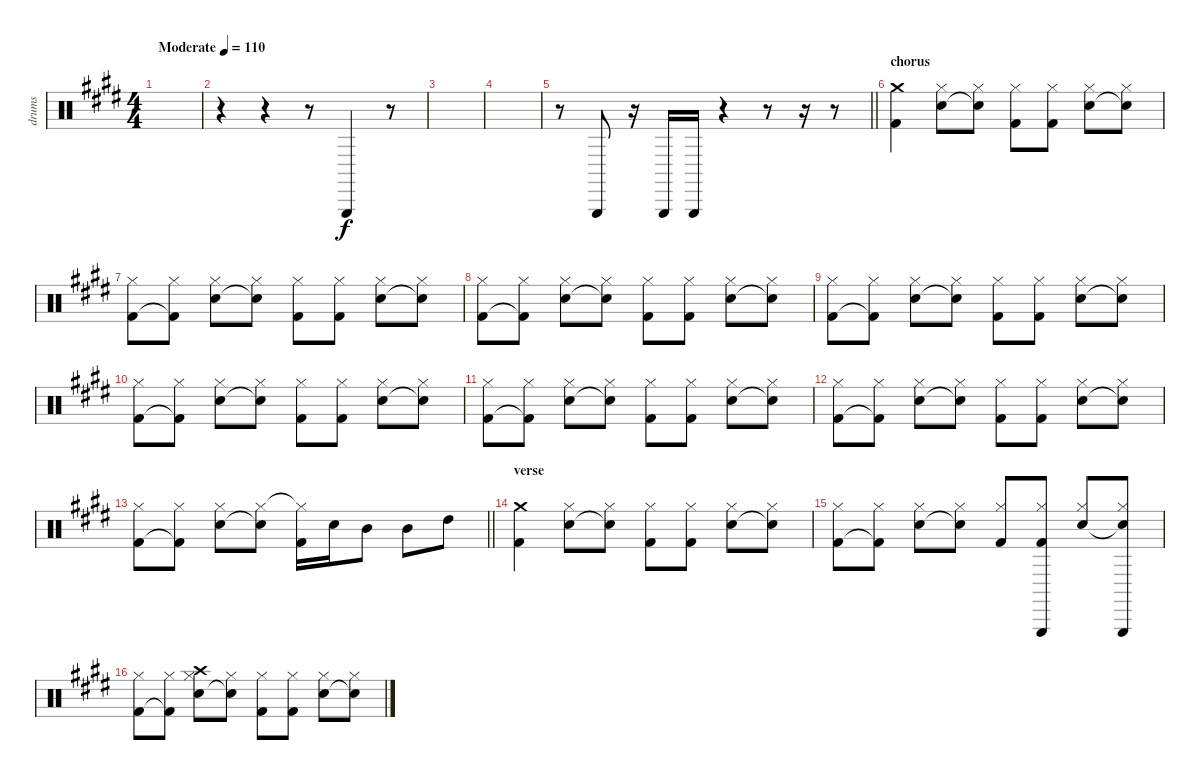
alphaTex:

\track ("drums" "drums") {instrument percussion}
\staff {score}
\articulation defaults
\ts (4 4)
\tempo (110 "Moderate")
\clef neutral
\ks e
|
r.4 r.4 r.8 "Triangle (hit)".4 r.8 |
|
|
\barLineRight lightlight
r.8 "Triangle (hit)".8 r.16 "Triangle (hit)".16 "Triangle (hit)".16 r.4 r.8 r.16 r.8 |
\section ("" "chorus")
("Kick (hit) 2" "Crash medium (hit)").4 ("Electric Snare (hit)" "Hi-Hat (closed)").8 ("Snare (hit)"{t} "Hi-Hat (closed)").8 ("Kick (hit) 2" "Hi-Hat (closed)").8 ("Kick (hit) 2" "Hi-Hat (closed)").8 ("Electric Snare (hit)" "Hi-Hat (closed)").8 ("Snare (hit)"{t} "Hi-Hat (closed)").8 |
("Kick (hit) 2" "Hi-Hat (closed)").8 ("Kick (hit) 2"{t} "Hi-Hat (closed)").8 ("Electric Snare (hit)" "Hi-Hat (closed)").8 ("Snare (hit)"{t} "Hi-Hat (closed)").8 ("Kick (hit) 2" "Hi-Hat (closed)").8 ("Kick (hit) 2" "Hi-Hat (closed)").8 ("Electric Snare (hit)" "Hi-Hat (closed)").8 ("Snare (hit)"{t} "Hi-Hat (closed)").8 |
("Kick (hit) 2" "Hi-Hat (closed)").8 ("Kick (hit) 2"{t} "Hi-Hat (closed)").8 ("Electric Snare (hit)" "Hi-Hat (closed)").8 ("Snare (hit)"{t} "Hi-Hat (closed)").8 ("Kick (hit) 2" "Hi-Hat (closed)").8 ("Kick (hit) 2" "Hi-Hat (closed)").8 ("Electric Snare (hit)" "Hi-Hat (closed)").8 ("Snare (hit)"{t} "Hi-Hat (closed)").8 |
("Kick (hit) 2" "Hi-Hat (closed)").8 ("Kick (hit) 2"{t} "Hi-Hat (closed)").8 ("Electric Snare (hit)" "Hi-Hat (closed)").8 ("Snare (hit)"{t} "Hi-Hat (closed)").8 ("Kick (hit) 2" "Hi-Hat (closed)").8 ("Kick (hit) 2" "Hi-Hat (closed)").8 ("Electric Snare (hit)" "Hi-Hat (closed)").8 ("Snare (hit)"{t} "Hi-Hat (closed)").8 |
("Kick (hit) 2" "Hi-Hat (closed)").8 ("Kick (hit) 2"{t} "Hi-Hat (closed)").8 ("Electric Snare (hit)" "Hi-Hat (closed)").8 ("Snare (hit)"{t} "Hi-Hat (closed)").8 ("Kick (hit) 2" "Hi-Hat (closed)").8 ("Kick (hit) 2" "Hi-Hat (closed)").8 ("Electric Snare (hit)" "Hi-Hat (closed)").8 ("Snare (hit)"{t} "Hi-Hat (closed)").8 |
("Kick (hit) 2" "Hi-Hat (closed)").8 ("Kick (hit) 2"{t} "Hi-Hat (closed)").8 ("Electric Snare (hit)" "Hi-Hat (closed)").8 ("Snare (hit)"{t} "Hi-Hat (closed)").8 ("Kick (hit) 2" "Hi-Hat (closed)").8 ("Kick (hit) 2" "Hi-Hat (closed)").8 ("Electric Snare (hit)" "Hi-Hat (closed)").8 ("Snare (hit)"{t} "Hi-Hat (closed)").8 |
("Kick (hit) 2" "Hi-Hat (closed)").8 ("Kick (hit) 2"{t} "Hi-Hat (closed)").8 ("Electric Snare (hit)" "Hi-Hat (closed)").8 ("Snare (hit)"{t} "Hi-Hat (closed)").8 ("Kick (hit) 2" "Hi-Hat (closed)").8 ("Kick (hit) 2" "Hi-Hat (closed)").8 ("Electric Snare (hit)" "Hi-Hat (closed)").8 ("Snare (hit)"{t} "Hi-Hat (closed)").8 |
\barLineRight lightlight
("Kick (hit) 2" "Hi-Hat (closed)").8 ("Kick (hit) 2"{t} "Hi-Hat (closed)").8 ("Electric Snare (hit)" "Hi-Hat (closed)").8 ("Snare (hit)"{t} "Hi-Hat (closed)").8 ("Kick (hit) 2" "Hi-Hat (closed)"{t}).16 "Electric Snare (hit)".16 "Mid Tom (hit)".8 "Mid Tom (hit)".8 "High Tom (hit)".8 |
\section ("" "verse")
("Kick (hit) 2" "Crash medium (hit)").4 ("Electric Snare (hit)" "Hi-Hat (closed)").8 ("Snare (hit)"{t} "Hi-Hat (closed)").8 ("Kick (hit) 2" "Hi-Hat (closed)").8 ("Kick (hit) 2" "Hi-Hat (closed)").8 ("Electric Snare (hit)" "Hi-Hat (closed)").8 ("Snare (hit)"{t} "Hi-Hat (closed)").8 |
("Kick (hit) 2" "Hi-Hat (closed)").8 ("Kick (hit) 2"{t} "Hi-Hat (closed)").8 ("Electric Snare (hit)" "Hi-Hat (closed)").8 ("Snare (hit)"{t} "Hi-Hat (closed)").8 ("Kick (hit) 2" "Hi-Hat (closed)").8 ("Kick (hit) 2" "Hi-Hat (closed)" "Triangle (hit)").8 ("Electric Snare (hit)" "Hi-Hat (closed)").8 ("Snare (hit)"{t} "Hi-Hat (closed)" "Triangle (hit)").8 |
("Kick (hit) 2" "Hi-Hat (closed)").8 ("Kick (hit) 2"{t} "Hi-Hat (closed)").8 ("Electric Snare (hit)" "Hi-Hat (closed)" "Crash high (hit)").8 ("Snare (hit)"{t} "Hi-Hat (closed)").8 ("Kick (hit) 2" "Hi-Hat (closed)").8 ("Kick (hit) 2" "Hi-Hat (closed)").8 ("Electric Snare (hit)" "Hi-Hat (closed)").8 ("Snare (hit)"{t} "Hi-Hat (closed)").8
